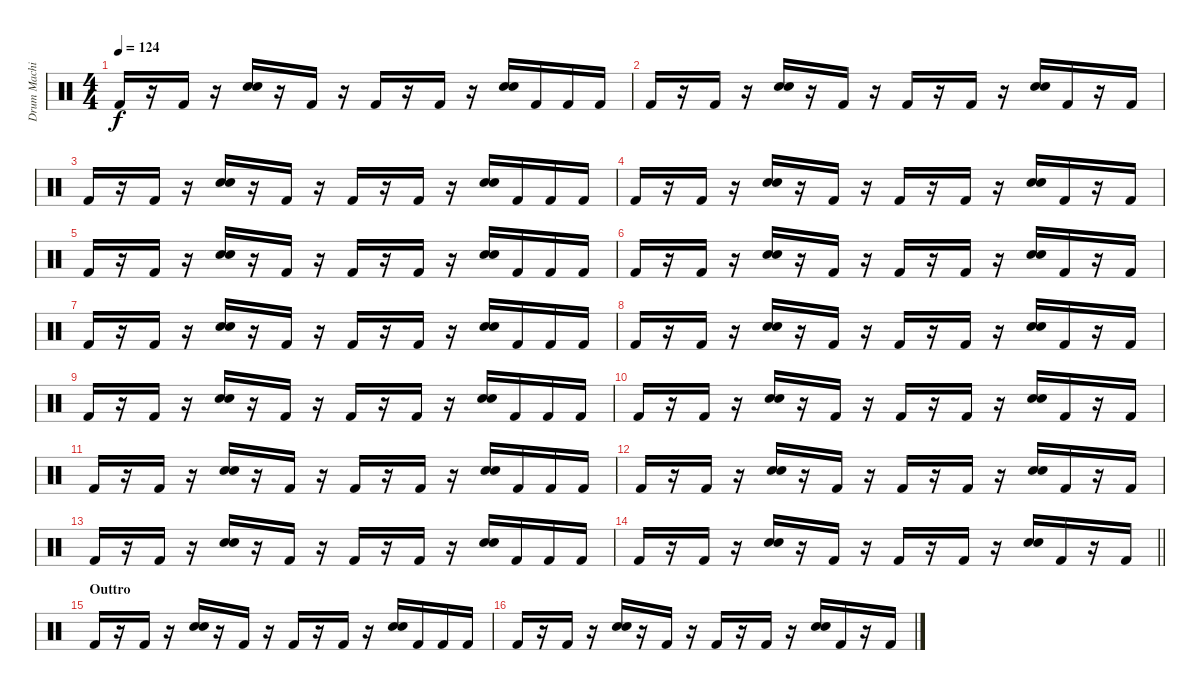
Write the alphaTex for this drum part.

\track ("Drum Machine" "Drum Machi") {instrument percussion}
\staff {score}
\articulation defaults
\ts (4 4)
\tempo 124
\clef neutral
\ks c "Kick (hit) 2".16{dy f}
r.16 "Kick (hit) 2".16 r.16 ("Electric Snare (hit)" "Hand Clap (hit)").16 r.16 "Kick (hit) 2".16 r.16 "Kick (hit) 2".16 r.16 "Kick (hit) 2".16 r.16 ("Electric Snare (hit)" "Hand Clap (hit)").16 "Kick (hit) 2".16 "Kick (hit) 2".16 "Kick (hit) 2".16 |
"Kick (hit) 2".16 r.16 "Kick (hit) 2".16 r.16 ("Electric Snare (hit)" "Hand Clap (hit)").16 r.16 "Kick (hit) 2".16 r.16 "Kick (hit) 2".16 r.16 "Kick (hit) 2".16 r.16 ("Electric Snare (hit)" "Hand Clap (hit)").16 "Kick (hit) 2".16 r.16 "Kick (hit) 2".16 |
"Kick (hit) 2".16 r.16 "Kick (hit) 2".16 r.16 ("Electric Snare (hit)" "Hand Clap (hit)").16 r.16 "Kick (hit) 2".16 r.16 "Kick (hit) 2".16 r.16 "Kick (hit) 2".16 r.16 ("Electric Snare (hit)" "Hand Clap (hit)").16 "Kick (hit) 2".16 "Kick (hit) 2".16 "Kick (hit) 2".16 |
"Kick (hit) 2".16 r.16 "Kick (hit) 2".16 r.16 ("Electric Snare (hit)" "Hand Clap (hit)").16 r.16 "Kick (hit) 2".16 r.16 "Kick (hit) 2".16 r.16 "Kick (hit) 2".16 r.16 ("Electric Snare (hit)" "Hand Clap (hit)").16 "Kick (hit) 2".16 r.16 "Kick (hit) 2".16 |
"Kick (hit) 2".16 r.16 "Kick (hit) 2".16 r.16 ("Electric Snare (hit)" "Hand Clap (hit)").16 r.16 "Kick (hit) 2".16 r.16 "Kick (hit) 2".16 r.16 "Kick (hit) 2".16 r.16 ("Electric Snare (hit)" "Hand Clap (hit)").16 "Kick (hit) 2".16 "Kick (hit) 2".16 "Kick (hit) 2".16 |
"Kick (hit) 2".16 r.16 "Kick (hit) 2".16 r.16 ("Electric Snare (hit)" "Hand Clap (hit)").16 r.16 "Kick (hit) 2".16 r.16 "Kick (hit) 2".16 r.16 "Kick (hit) 2".16 r.16 ("Electric Snare (hit)" "Hand Clap (hit)").16 "Kick (hit) 2".16 r.16 "Kick (hit) 2".16 |
"Kick (hit) 2".16 r.16 "Kick (hit) 2".16 r.16 ("Electric Snare (hit)" "Hand Clap (hit)").16 r.16 "Kick (hit) 2".16 r.16 "Kick (hit) 2".16 r.16 "Kick (hit) 2".16 r.16 ("Electric Snare (hit)" "Hand Clap (hit)").16 "Kick (hit) 2".16 "Kick (hit) 2".16 "Kick (hit) 2".16 |
"Kick (hit) 2".16 r.16 "Kick (hit) 2".16 r.16 ("Electric Snare (hit)" "Hand Clap (hit)").16 r.16 "Kick (hit) 2".16 r.16 "Kick (hit) 2".16 r.16 "Kick (hit) 2".16 r.16 ("Electric Snare (hit)" "Hand Clap (hit)").16 "Kick (hit) 2".16 r.16 "Kick (hit) 2".16 |
"Kick (hit) 2".16 r.16 "Kick (hit) 2".16 r.16 ("Electric Snare (hit)" "Hand Clap (hit)").16 r.16 "Kick (hit) 2".16 r.16 "Kick (hit) 2".16 r.16 "Kick (hit) 2".16 r.16 ("Electric Snare (hit)" "Hand Clap (hit)").16 "Kick (hit) 2".16 "Kick (hit) 2".16 "Kick (hit) 2".16 |
"Kick (hit) 2".16 r.16 "Kick (hit) 2".16 r.16 ("Electric Snare (hit)" "Hand Clap (hit)").16 r.16 "Kick (hit) 2".16 r.16 "Kick (hit) 2".16 r.16 "Kick (hit) 2".16 r.16 ("Electric Snare (hit)" "Hand Clap (hit)").16 "Kick (hit) 2".16 r.16 "Kick (hit) 2".16 |
"Kick (hit) 2".16 r.16 "Kick (hit) 2".16 r.16 ("Electric Snare (hit)" "Hand Clap (hit)").16 r.16 "Kick (hit) 2".16 r.16 "Kick (hit) 2".16 r.16 "Kick (hit) 2".16 r.16 ("Electric Snare (hit)" "Hand Clap (hit)").16 "Kick (hit) 2".16 "Kick (hit) 2".16 "Kick (hit) 2".16 |
"Kick (hit) 2".16 r.16 "Kick (hit) 2".16 r.16 ("Electric Snare (hit)" "Hand Clap (hit)").16 r.16 "Kick (hit) 2".16 r.16 "Kick (hit) 2".16 r.16 "Kick (hit) 2".16 r.16 ("Electric Snare (hit)" "Hand Clap (hit)").16 "Kick (hit) 2".16 r.16 "Kick (hit) 2".16 |
"Kick (hit) 2".16 r.16 "Kick (hit) 2".16 r.16 ("Electric Snare (hit)" "Hand Clap (hit)").16 r.16 "Kick (hit) 2".16 r.16 "Kick (hit) 2".16 r.16 "Kick (hit) 2".16 r.16 ("Electric Snare (hit)" "Hand Clap (hit)").16 "Kick (hit) 2".16 "Kick (hit) 2".16 "Kick (hit) 2".16 |
\barLineRight lightlight "Kick (hit) 2".16
r.16 "Kick (hit) 2".16 r.16 ("Electric Snare (hit)" "Hand Clap (hit)").16 r.16 "Kick (hit) 2".16 r.16 "Kick (hit) 2".16 r.16 "Kick (hit) 2".16 r.16 ("Electric Snare (hit)" "Hand Clap (hit)").16 "Kick (hit) 2".16 r.16 "Kick (hit) 2".16 |
\section ("" "Outtro")
"Kick (hit) 2".16 r.16 "Kick (hit) 2".16 r.16 ("Electric Snare (hit)" "Hand Clap (hit)").16 r.16 "Kick (hit) 2".16 r.16 "Kick (hit) 2".16 r.16 "Kick (hit) 2".16 r.16 ("Electric Snare (hit)" "Hand Clap (hit)").16 "Kick (hit) 2".16 "Kick (hit) 2".16 "Kick (hit) 2".16 |
"Kick (hit) 2".16 r.16 "Kick (hit) 2".16 r.16 ("Electric Snare (hit)" "Hand Clap (hit)").16 r.16 "Kick (hit) 2".16 r.16 "Kick (hit) 2".16 r.16 "Kick (hit) 2".16 r.16 ("Electric Snare (hit)" "Hand Clap (hit)").16 "Kick (hit) 2".16 r.16 "Kick (hit) 2".16
